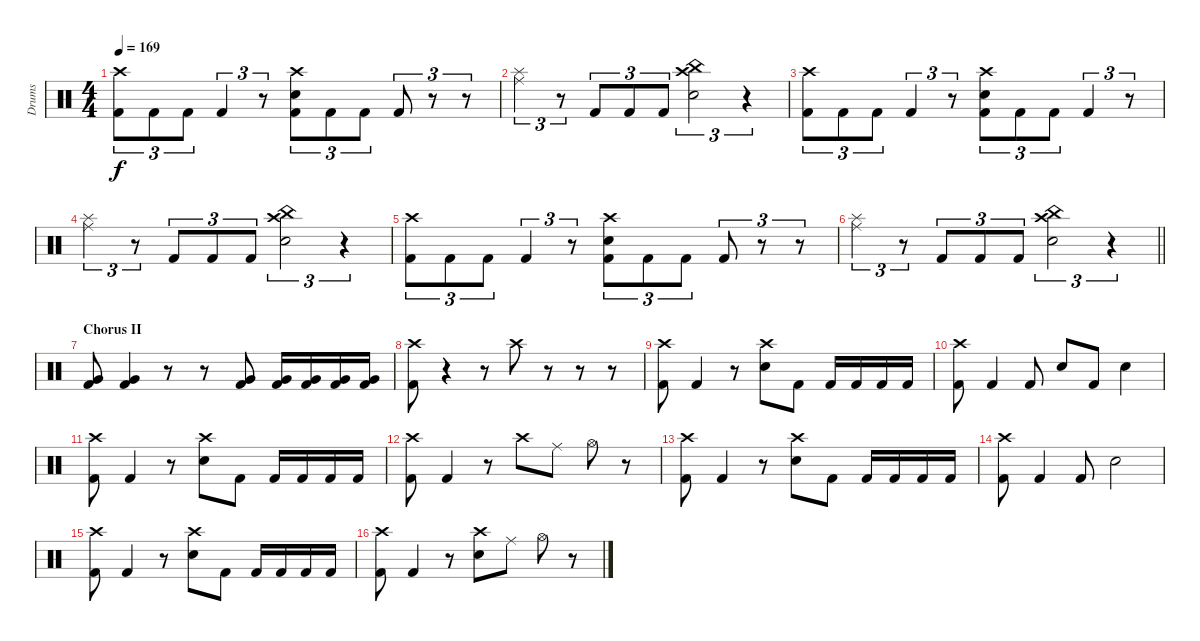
\track ("Drums" "Drums") {instrument percussion}
\staff {score}
\articulation defaults
\ts (4 4)
\tempo 169
\clef neutral
\ks c
("Crash high (hit)" "Kick (hit) 2").8{tu (3 2) dy f} "Kick (hit) 2".8{tu (3 2)} "Kick (hit) 2".8{tu (3 2)} "Kick (hit) 2".4{tu (3 2)} r.8{tu (3 2)} ("Crash high (hit)" "Electric Snare (hit)" "Kick (hit) 2").8{tu (3 2)} "Kick (hit) 2".8{tu (3 2)} "Kick (hit) 2".8{tu (3 2)} "Kick (hit) 2".8{tu (3 2)} r.8{tu (3 2)} r.8{tu (3 2)} |
("Splash (hit)" "Ride (middle)").4{tu (3 2)} r.8{tu (3 2)} "Kick (hit) 2".8{tu (3 2)} "Kick (hit) 2".8{tu (3 2)} "Kick (hit) 2".8{tu (3 2)} ("China (hit)" "Crash high (hit)" "Electric Snare (hit)").2{tu (3 2)} r.4{tu (3 2)} |
("Crash high (hit)" "Kick (hit) 2").8{tu (3 2)} "Kick (hit) 2".8{tu (3 2)} "Kick (hit) 2".8{tu (3 2)} "Kick (hit) 2".4{tu (3 2)} r.8{tu (3 2)} ("Crash high (hit)" "Electric Snare (hit)" "Kick (hit) 2").8{tu (3 2)} "Kick (hit) 2".8{tu (3 2)} "Kick (hit) 2".8{tu (3 2)} "Kick (hit) 2".4{tu (3 2)} r.8{tu (3 2)} |
("Splash (hit)" "Ride (middle)").4{tu (3 2)} r.8{tu (3 2)} "Kick (hit) 2".8{tu (3 2)} "Kick (hit) 2".8{tu (3 2)} "Kick (hit) 2".8{tu (3 2)} ("China (hit)" "Crash high (hit)" "Electric Snare (hit)").2{tu (3 2)} r.4{tu (3 2)} |
("Crash high (hit)" "Kick (hit) 2").8{tu (3 2)} "Kick (hit) 2".8{tu (3 2)} "Kick (hit) 2".8{tu (3 2)} "Kick (hit) 2".4{tu (3 2)} r.8{tu (3 2)} ("Crash high (hit)" "Electric Snare (hit)" "Kick (hit) 2").8{tu (3 2)} "Kick (hit) 2".8{tu (3 2)} "Kick (hit) 2".8{tu (3 2)} "Kick (hit) 2".8{tu (3 2)} r.8{tu (3 2)} r.8{tu (3 2)} |
\barLineRight lightlight
("Splash (hit)" "Ride (middle)").4{tu (3 2)} r.8{tu (3 2)} "Kick (hit) 2".8{tu (3 2)} "Kick (hit) 2".8{tu (3 2)} "Kick (hit) 2".8{tu (3 2)} ("China (hit)" "Crash high (hit)" "Electric Snare (hit)").2{tu (3 2)} r.4{tu (3 2)} |
\section ("" "Chorus II")
("Very Low Tom (hit)" "Kick (hit) 2").8 ("Very Low Tom (hit)" "Kick (hit) 2").4 r.8 r.8 ("Very Low Tom (hit)" "Kick (hit) 2").8 ("Very Low Tom (hit)" "Kick (hit) 2").16 ("Very Low Tom (hit)" "Kick (hit) 2").16 ("Very Low Tom (hit)" "Kick (hit) 2").16 ("Very Low Tom (hit)" "Kick (hit) 2").16 |
("Crash high (hit)" "Kick (hit) 2").8 r.4 r.8 "Crash high (hit)".8 r.8 r.8 r.8 |
("Crash high (hit)" "Kick (hit) 2").8 "Kick (hit) 2".4 r.8 ("Crash high (hit)" "Electric Snare (hit)").8 "Kick (hit) 2".8 "Kick (hit) 2".16 "Kick (hit) 2".16 "Kick (hit) 2".16 "Kick (hit) 2".16 |
("Crash high (hit)" "Kick (hit) 2").8 "Kick (hit) 2".4 "Kick (hit) 2".8 "Electric Snare (hit)".8 "Kick (hit) 2".8 "Electric Snare (hit)".4 |
("Crash high (hit)" "Kick (hit) 2").8 "Kick (hit) 2".4 r.8 ("Crash high (hit)" "Electric Snare (hit)").8 "Kick (hit) 2".8 "Kick (hit) 2".16 "Kick (hit) 2".16 "Kick (hit) 2".16 "Kick (hit) 2".16 |
("Crash high (hit)" "Kick (hit) 2").8 "Kick (hit) 2".4 r.8 "Crash high (hit)".8 "Ride (middle)".8 "Hi-Hat (open)".8 r.8 |
("Crash high (hit)" "Kick (hit) 2").8 "Kick (hit) 2".4 r.8 ("Crash high (hit)" "Electric Snare (hit)").8 "Kick (hit) 2".8 "Kick (hit) 2".16 "Kick (hit) 2".16 "Kick (hit) 2".16 "Kick (hit) 2".16 |
("Crash high (hit)" "Kick (hit) 2").8 "Kick (hit) 2".4 "Kick (hit) 2".8 "Electric Snare (hit)".2 |
("Crash high (hit)" "Kick (hit) 2").8 "Kick (hit) 2".4 r.8 ("Crash high (hit)" "Electric Snare (hit)").8 "Kick (hit) 2".8 "Kick (hit) 2".16 "Kick (hit) 2".16 "Kick (hit) 2".16 "Kick (hit) 2".16 |
("Crash high (hit)" "Kick (hit) 2").8 "Kick (hit) 2".4 r.8 ("Crash high (hit)" "Electric Snare (hit)").8 "Ride (middle)".8 "Hi-Hat (open)".8 r.8
